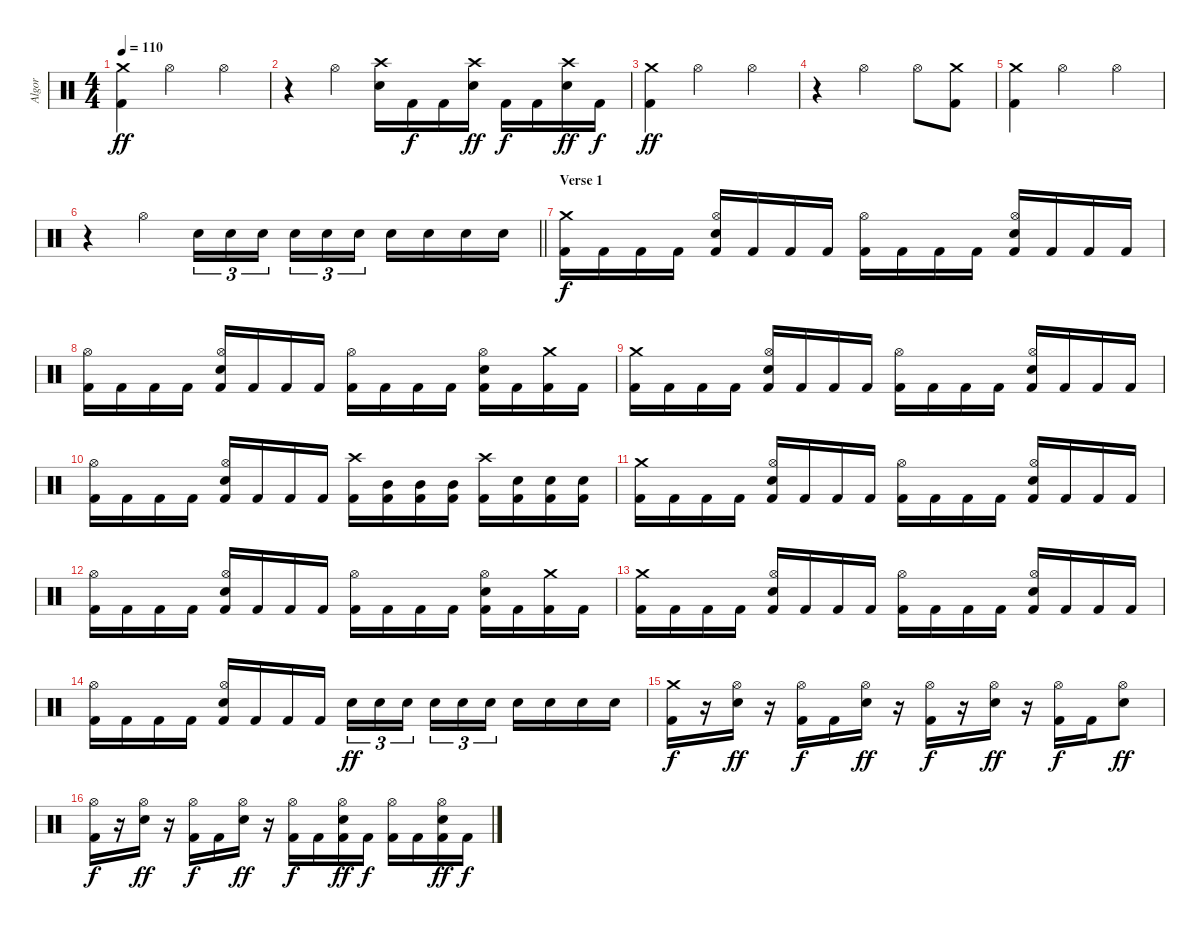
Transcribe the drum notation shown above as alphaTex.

\track ("Algor" "Algor") {instrument percussion}
\staff {score}
\articulation defaults
\ts (4 4)
\tempo 110
\clef neutral
\ks c
("Crash medium (hit)" "Kick (hit) 2").4{dy ff} "Hi-Hat (open)".2 "Hi-Hat (open)".4 |
r.4 "Hi-Hat (open)".4 ("Crash high (hit)" "Snare (hit) 2").16 "Kick (hit) 2".16{dy f} "Kick (hit) 2".16 ("Crash high (hit)" "Snare (hit) 2").16{dy ff} "Kick (hit) 2".16{dy f} "Kick (hit) 2".16 ("Crash high (hit)" "Snare (hit) 2").16{dy ff} "Kick (hit) 2".16{dy f} |
("Crash medium (hit)" "Kick (hit) 2").4{dy ff} "Hi-Hat (open)".2 "Hi-Hat (open)".4 |
r.4 "Hi-Hat (open)".2 "Hi-Hat (open)".8 ("Crash medium (hit)" "Kick (hit) 2").8 |
("Crash medium (hit)" "Kick (hit) 2").4 "Hi-Hat (open)".2 "Hi-Hat (open)".4 |
\barLineRight lightlight
r.4 "Hi-Hat (open)".4 "Snare (hit) 2".16{tu (3 2)} "Snare (hit) 2".16{tu (3 2)} "Snare (hit) 2".16{tu (3 2) beam splitsecondary} "Snare (hit) 2".16{tu (3 2)} "Snare (hit) 2".16{tu (3 2)} "Snare (hit) 2".16{tu (3 2)} "Snare (hit) 2".16 "Snare (hit) 2".16 "Snare (hit) 2".16 "Snare (hit) 2".16 |
\section ("" "Verse 1")
("Crash medium (hit)" "Kick (hit) 2").16{dy f} "Kick (hit) 2".16 "Kick (hit) 2".16 "Kick (hit) 2".16 ("Hi-Hat (open)" "Snare (hit) 2" "Kick (hit) 2").16 "Kick (hit) 2".16 "Kick (hit) 2".16 "Kick (hit) 2".16 ("Hi-Hat (open)" "Kick (hit) 2").16 "Kick (hit) 2".16 "Kick (hit) 2".16 "Kick (hit) 2".16 ("Hi-Hat (open)" "Snare (hit) 2" "Kick (hit) 2").16 "Kick (hit) 2".16 "Kick (hit) 2".16 "Kick (hit) 2".16 |
("Hi-Hat (open)" "Kick (hit) 2").16 "Kick (hit) 2".16 "Kick (hit) 2".16 "Kick (hit) 2".16 ("Hi-Hat (open)" "Snare (hit) 2" "Kick (hit) 2").16 "Kick (hit) 2".16 "Kick (hit) 2".16 "Kick (hit) 2".16 ("Hi-Hat (open)" "Kick (hit) 2").16 "Kick (hit) 2".16 "Kick (hit) 2".16 "Kick (hit) 2".16 ("Hi-Hat (open)" "Snare (hit) 2" "Kick (hit) 2").16 "Kick (hit) 2".16 ("Crash medium (hit)" "Kick (hit) 2").16 "Kick (hit) 2".16 |
("Crash medium (hit)" "Kick (hit) 2").16 "Kick (hit) 2".16 "Kick (hit) 2".16 "Kick (hit) 2".16 ("Hi-Hat (open)" "Snare (hit) 2" "Kick (hit) 2").16 "Kick (hit) 2".16 "Kick (hit) 2".16 "Kick (hit) 2".16 ("Hi-Hat (open)" "Kick (hit) 2").16 "Kick (hit) 2".16 "Kick (hit) 2".16 "Kick (hit) 2".16 ("Hi-Hat (open)" "Snare (hit) 2" "Kick (hit) 2").16 "Kick (hit) 2".16 "Kick (hit) 2".16 "Kick (hit) 2".16 |
("Hi-Hat (open)" "Kick (hit) 2").16 "Kick (hit) 2".16 "Kick (hit) 2".16 "Kick (hit) 2".16 ("Hi-Hat (open)" "Snare (hit) 2" "Kick (hit) 2").16 "Kick (hit) 2".16 "Kick (hit) 2".16 "Kick (hit) 2".16 ("Crash high (hit)" "Kick (hit) 2").16 ("Mid Tom (hit)" "Kick (hit) 2").16 ("Mid Tom (hit)" "Kick (hit) 2").16 ("Mid Tom (hit)" "Kick (hit) 2").16 ("Crash high (hit)" "Kick (hit) 2").16 ("Snare (hit) 2" "Kick (hit) 2").16 ("Snare (hit) 2" "Kick (hit) 2").16 ("Snare (hit) 2" "Kick (hit) 2").16 |
("Crash medium (hit)" "Kick (hit) 2").16 "Kick (hit) 2".16 "Kick (hit) 2".16 "Kick (hit) 2".16 ("Hi-Hat (open)" "Snare (hit) 2" "Kick (hit) 2").16 "Kick (hit) 2".16 "Kick (hit) 2".16 "Kick (hit) 2".16 ("Hi-Hat (open)" "Kick (hit) 2").16 "Kick (hit) 2".16 "Kick (hit) 2".16 "Kick (hit) 2".16 ("Hi-Hat (open)" "Snare (hit) 2" "Kick (hit) 2").16 "Kick (hit) 2".16 "Kick (hit) 2".16 "Kick (hit) 2".16 |
("Hi-Hat (open)" "Kick (hit) 2").16 "Kick (hit) 2".16 "Kick (hit) 2".16 "Kick (hit) 2".16 ("Hi-Hat (open)" "Snare (hit) 2" "Kick (hit) 2").16 "Kick (hit) 2".16 "Kick (hit) 2".16 "Kick (hit) 2".16 ("Hi-Hat (open)" "Kick (hit) 2").16 "Kick (hit) 2".16 "Kick (hit) 2".16 "Kick (hit) 2".16 ("Hi-Hat (open)" "Snare (hit) 2" "Kick (hit) 2").16 "Kick (hit) 2".16 ("Crash medium (hit)" "Kick (hit) 2").16 "Kick (hit) 2".16 |
("Crash medium (hit)" "Kick (hit) 2").16 "Kick (hit) 2".16 "Kick (hit) 2".16 "Kick (hit) 2".16 ("Hi-Hat (open)" "Snare (hit) 2" "Kick (hit) 2").16 "Kick (hit) 2".16 "Kick (hit) 2".16 "Kick (hit) 2".16 ("Hi-Hat (open)" "Kick (hit) 2").16 "Kick (hit) 2".16 "Kick (hit) 2".16 "Kick (hit) 2".16 ("Hi-Hat (open)" "Snare (hit) 2" "Kick (hit) 2").16 "Kick (hit) 2".16 "Kick (hit) 2".16 "Kick (hit) 2".16 |
("Hi-Hat (open)" "Kick (hit) 2").16 "Kick (hit) 2".16 "Kick (hit) 2".16 "Kick (hit) 2".16 ("Hi-Hat (open)" "Snare (hit) 2" "Kick (hit) 2").16 "Kick (hit) 2".16 "Kick (hit) 2".16 "Kick (hit) 2".16 "Snare (hit) 2".16{tu (3 2) dy ff} "Snare (hit) 2".16{tu (3 2)} "Snare (hit) 2".16{tu (3 2) beam splitsecondary} "Snare (hit) 2".16{tu (3 2)} "Snare (hit) 2".16{tu (3 2)} "Snare (hit) 2".16{tu (3 2)} "Snare (hit) 2".16 "Snare (hit) 2".16 "Snare (hit) 2".16 "Snare (hit) 2".16 |
("Crash medium (hit)" "Kick (hit) 2").16{dy f} r.16 ("Hi-Hat (open)" "Snare (hit) 2").16{dy ff} r.16 ("Hi-Hat (open)" "Kick (hit) 2").16{dy f} "Kick (hit) 2".16 ("Hi-Hat (open)" "Snare (hit) 2").16{dy ff} r.16 ("Hi-Hat (open)" "Kick (hit) 2").16{dy f} r.16 ("Hi-Hat (open)" "Snare (hit) 2").16{dy ff} r.16 ("Hi-Hat (open)" "Kick (hit) 2").16{dy f} "Kick (hit) 2".16 ("Hi-Hat (open)" "Snare (hit) 2").8{dy ff} |
("Hi-Hat (open)" "Kick (hit) 2").16{dy f} r.16 ("Hi-Hat (open)" "Snare (hit) 2").16{dy ff} r.16 ("Hi-Hat (open)" "Kick (hit) 2").16{dy f} "Kick (hit) 2".16 ("Hi-Hat (open)" "Snare (hit) 2").16{dy ff} r.16 ("Hi-Hat (open)" "Kick (hit) 2").16{dy f} "Kick (hit) 2".16 ("Hi-Hat (open)" "Snare (hit) 2" "Kick (hit) 2").16{dy ff} "Kick (hit) 2".16{dy f} ("Hi-Hat (open)" "Kick (hit) 2").16 "Kick (hit) 2".16 ("Hi-Hat (open)" "Snare (hit) 2" "Kick (hit) 2").16{dy ff} "Kick (hit) 2".16{dy f}
